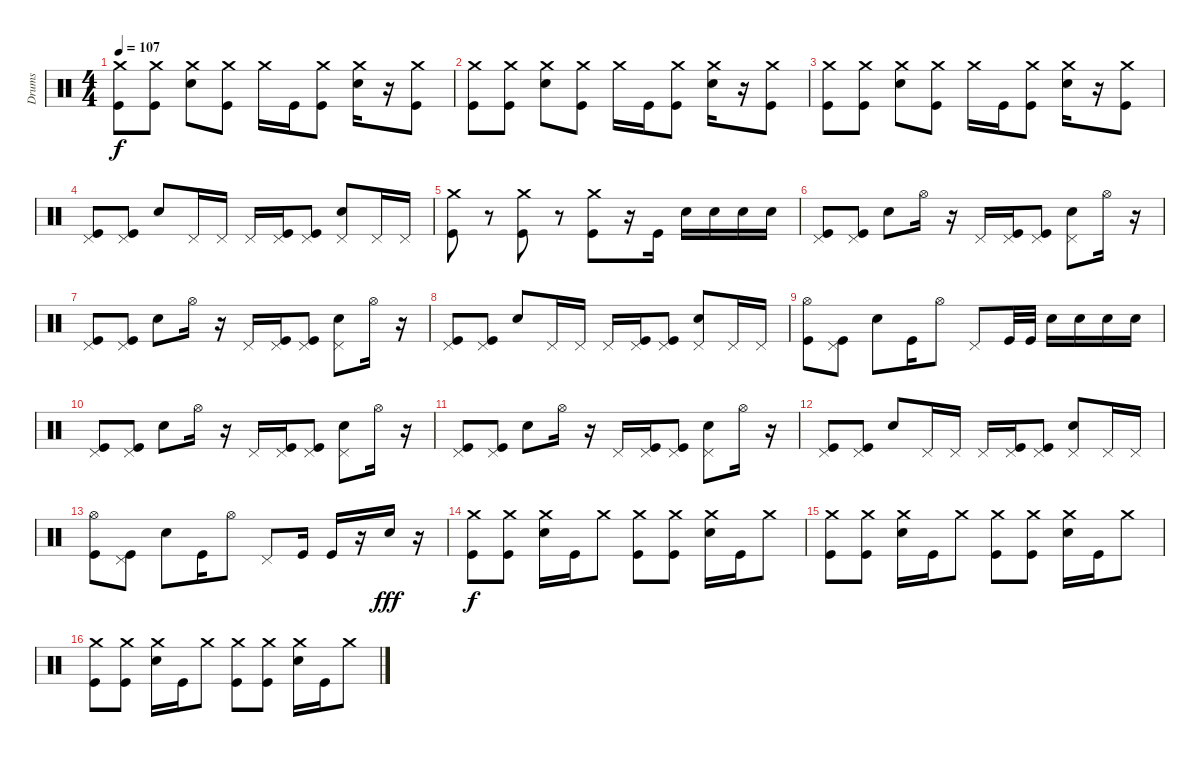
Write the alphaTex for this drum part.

\track ("Drums" "Drums") {instrument percussion}
\staff {score}
\articulation defaults
\ts (4 4)
\tempo 107
\clef neutral
\ks c
("Crash medium (hit)" "Kick (hit)").8{dy f} ("Crash medium (hit)" "Kick (hit)").8 ("Crash medium (hit)" "Electric Snare (hit)").8 ("Crash medium (hit)" "Kick (hit)").8 "Crash medium (hit)".16 "Kick (hit)".16 ("Crash medium (hit)" "Kick (hit)").8 ("Crash medium (hit)" "Electric Snare (hit)").16 r.16 ("Crash medium (hit)" "Kick (hit)").8 |
("Crash medium (hit)" "Kick (hit)").8 ("Crash medium (hit)" "Kick (hit)").8 ("Crash medium (hit)" "Electric Snare (hit)").8 ("Crash medium (hit)" "Kick (hit)").8 "Crash medium (hit)".16 "Kick (hit)".16 ("Crash medium (hit)" "Kick (hit)").8 ("Crash medium (hit)" "Electric Snare (hit)").16 r.16 ("Crash medium (hit)" "Kick (hit)").8 |
("Crash medium (hit)" "Kick (hit)").8 ("Crash medium (hit)" "Kick (hit)").8 ("Crash medium (hit)" "Electric Snare (hit)").8 ("Crash medium (hit)" "Kick (hit)").8 "Crash medium (hit)".16 "Kick (hit)".16 ("Crash medium (hit)" "Kick (hit)").8 ("Crash medium (hit)" "Electric Snare (hit)").16 r.16 ("Crash medium (hit)" "Kick (hit)").8 |
("Pedal Hi-Hat (hit)" "Kick (hit)").8 ("Pedal Hi-Hat (hit)" "Kick (hit)").8 "Electric Snare (hit)".8 "Pedal Hi-Hat (hit)".16 "Pedal Hi-Hat (hit)".16 "Pedal Hi-Hat (hit)".16 ("Pedal Hi-Hat (hit)" "Kick (hit)").16 ("Pedal Hi-Hat (hit)" "Kick (hit)").8 ("Pedal Hi-Hat (hit)" "Electric Snare (hit)").8 "Pedal Hi-Hat (hit)".16 "Pedal Hi-Hat (hit)".16 |
("Crash medium (hit)" "Kick (hit)").8 r.8 ("Crash medium (hit)" "Kick (hit)").8 r.8 ("Crash medium (hit)" "Kick (hit)").8 r.16 "Kick (hit)".16 "Electric Snare (hit)".16 "Electric Snare (hit)".16 "Electric Snare (hit)".16 "Electric Snare (hit)".16 |
("Pedal Hi-Hat (hit)" "Kick (hit)").8 ("Pedal Hi-Hat (hit)" "Kick (hit)").8 "Electric Snare (hit)".8 "Hi-Hat (open)".16 r.16 "Pedal Hi-Hat (hit)".16 ("Pedal Hi-Hat (hit)" "Kick (hit)").16 ("Pedal Hi-Hat (hit)" "Kick (hit)").8 ("Pedal Hi-Hat (hit)" "Electric Snare (hit)").8 "Hi-Hat (open)".16 r.16 |
("Pedal Hi-Hat (hit)" "Kick (hit)").8 ("Pedal Hi-Hat (hit)" "Kick (hit)").8 "Electric Snare (hit)".8 "Hi-Hat (open)".16 r.16 "Pedal Hi-Hat (hit)".16 ("Pedal Hi-Hat (hit)" "Kick (hit)").16 ("Pedal Hi-Hat (hit)" "Kick (hit)").8 ("Pedal Hi-Hat (hit)" "Electric Snare (hit)").8 "Hi-Hat (open)".16 r.16 |
("Pedal Hi-Hat (hit)" "Kick (hit)").8 ("Pedal Hi-Hat (hit)" "Kick (hit)").8 "Electric Snare (hit)".8 "Pedal Hi-Hat (hit)".16 "Pedal Hi-Hat (hit)".16 "Pedal Hi-Hat (hit)".16 ("Pedal Hi-Hat (hit)" "Kick (hit)").16 ("Pedal Hi-Hat (hit)" "Kick (hit)").8 ("Pedal Hi-Hat (hit)" "Electric Snare (hit)").8 "Pedal Hi-Hat (hit)".16 "Pedal Hi-Hat (hit)".16 |
("Hi-Hat (open)" "Kick (hit)").8 ("Pedal Hi-Hat (hit)" "Kick (hit)").8 "Electric Snare (hit)".8 "Kick (hit)".16 "Hi-Hat (open)".8 "Pedal Hi-Hat (hit)".8 "Kick (hit)".32 "Kick (hit)".32 "Electric Snare (hit)".16 "Electric Snare (hit)".16 "Electric Snare (hit)".16 "Electric Snare (hit)".16 |
("Pedal Hi-Hat (hit)" "Kick (hit)").8 ("Pedal Hi-Hat (hit)" "Kick (hit)").8 "Electric Snare (hit)".8 "Hi-Hat (open)".16 r.16 "Pedal Hi-Hat (hit)".16 ("Pedal Hi-Hat (hit)" "Kick (hit)").16 ("Pedal Hi-Hat (hit)" "Kick (hit)").8 ("Pedal Hi-Hat (hit)" "Electric Snare (hit)").8 "Hi-Hat (open)".16 r.16 |
("Pedal Hi-Hat (hit)" "Kick (hit)").8 ("Pedal Hi-Hat (hit)" "Kick (hit)").8 "Electric Snare (hit)".8 "Hi-Hat (open)".16 r.16 "Pedal Hi-Hat (hit)".16 ("Pedal Hi-Hat (hit)" "Kick (hit)").16 ("Pedal Hi-Hat (hit)" "Kick (hit)").8 ("Pedal Hi-Hat (hit)" "Electric Snare (hit)").8 "Hi-Hat (open)".16 r.16 |
("Pedal Hi-Hat (hit)" "Kick (hit)").8 ("Pedal Hi-Hat (hit)" "Kick (hit)").8 "Electric Snare (hit)".8 "Pedal Hi-Hat (hit)".16 "Pedal Hi-Hat (hit)".16 "Pedal Hi-Hat (hit)".16 ("Pedal Hi-Hat (hit)" "Kick (hit)").16 ("Pedal Hi-Hat (hit)" "Kick (hit)").8 ("Pedal Hi-Hat (hit)" "Electric Snare (hit)").8 "Pedal Hi-Hat (hit)".16 "Pedal Hi-Hat (hit)".16 |
("Hi-Hat (open)" "Kick (hit)").8 ("Pedal Hi-Hat (hit)" "Kick (hit)").8 "Electric Snare (hit)".8 "Kick (hit)".16 "Hi-Hat (open)".8 "Pedal Hi-Hat (hit)".8 "Kick (hit)".16 "Kick (hit)".16 r.16 "Electric Snare (hit)".16{dy fff} r.16 |
("Crash medium (hit)" "Kick (hit)").8{dy f} ("Crash medium (hit)" "Kick (hit)").8 ("Crash medium (hit)" "Electric Snare (hit)").16 "Kick (hit)".16 "Crash medium (hit)".8 ("Crash medium (hit)" "Kick (hit)").8 ("Crash medium (hit)" "Kick (hit)").8 ("Crash medium (hit)" "Electric Snare (hit)").16 "Kick (hit)".16 "Crash medium (hit)".8 |
("Crash medium (hit)" "Kick (hit)").8 ("Crash medium (hit)" "Kick (hit)").8 ("Crash medium (hit)" "Electric Snare (hit)").16 "Kick (hit)".16 "Crash medium (hit)".8 ("Crash medium (hit)" "Kick (hit)").8 ("Crash medium (hit)" "Kick (hit)").8 ("Crash medium (hit)" "Electric Snare (hit)").16 "Kick (hit)".16 "Crash medium (hit)".8 |
("Crash medium (hit)" "Kick (hit)").8 ("Crash medium (hit)" "Kick (hit)").8 ("Crash medium (hit)" "Electric Snare (hit)").16 "Kick (hit)".16 "Crash medium (hit)".8 ("Crash medium (hit)" "Kick (hit)").8 ("Crash medium (hit)" "Kick (hit)").8 ("Crash medium (hit)" "Electric Snare (hit)").16 "Kick (hit)".16 "Crash medium (hit)".8
